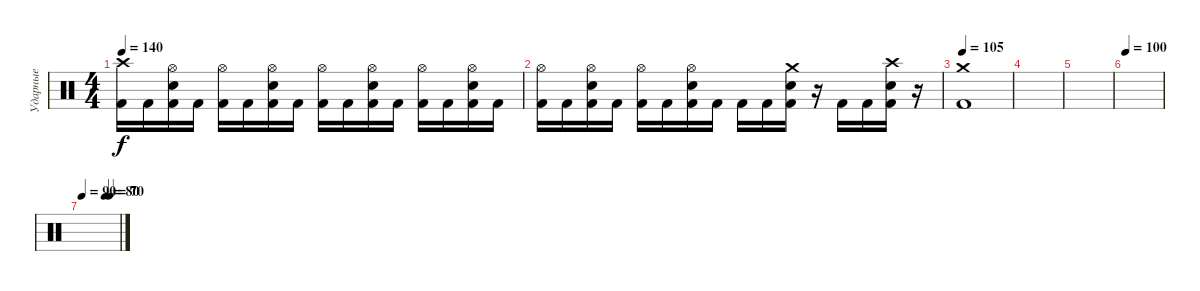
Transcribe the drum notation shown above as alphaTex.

\track ("Ударные" "Ударные") {instrument percussion}
\staff {score}
\articulation defaults
\ts (4 4)
\tempo 140
\clef neutral
\ks c
("Crash high (hit)" "Kick (hit) 2").16{dy f} "Kick (hit) 2".16 ("Hi-Hat (open)" "Snare (hit) 2" "Kick (hit) 2").16 "Kick (hit) 2".16 ("Hi-Hat (open)" "Kick (hit) 2").16 "Kick (hit) 2".16 ("Hi-Hat (open)" "Snare (hit) 2" "Kick (hit) 2").16 "Kick (hit) 2".16 ("Hi-Hat (open)" "Kick (hit) 2").16 "Kick (hit) 2".16 ("Hi-Hat (open)" "Snare (hit) 2" "Kick (hit) 2").16 "Kick (hit) 2".16 ("Hi-Hat (open)" "Kick (hit) 2").16 "Kick (hit) 2".16 ("Hi-Hat (open)" "Snare (hit) 2" "Kick (hit) 2").16 "Kick (hit) 2".16 |
("Hi-Hat (open)" "Kick (hit) 2").16 "Kick (hit) 2".16 ("Hi-Hat (open)" "Snare (hit) 2" "Kick (hit) 2").16 "Kick (hit) 2".16 ("Hi-Hat (open)" "Kick (hit) 2").16 "Kick (hit) 2".16 ("Hi-Hat (open)" "Snare (hit) 2" "Kick (hit) 2").16 "Kick (hit) 2".16 "Kick (hit) 2".16 "Kick (hit) 2".16 ("Crash medium (hit)" "Snare (hit) 2" "Kick (hit) 2").16 r.16 "Kick (hit) 2".16 "Kick (hit) 2".16 ("Crash high (hit)" "Snare (hit) 2" "Kick (hit) 2").16 r.16 |
\tempo 105
("Crash medium (hit)" "Kick (hit) 2").1 |
|
|
\tempo 100
|
\tempo 90
\tempo (80 0.625)
\tempo (70 0.75)
